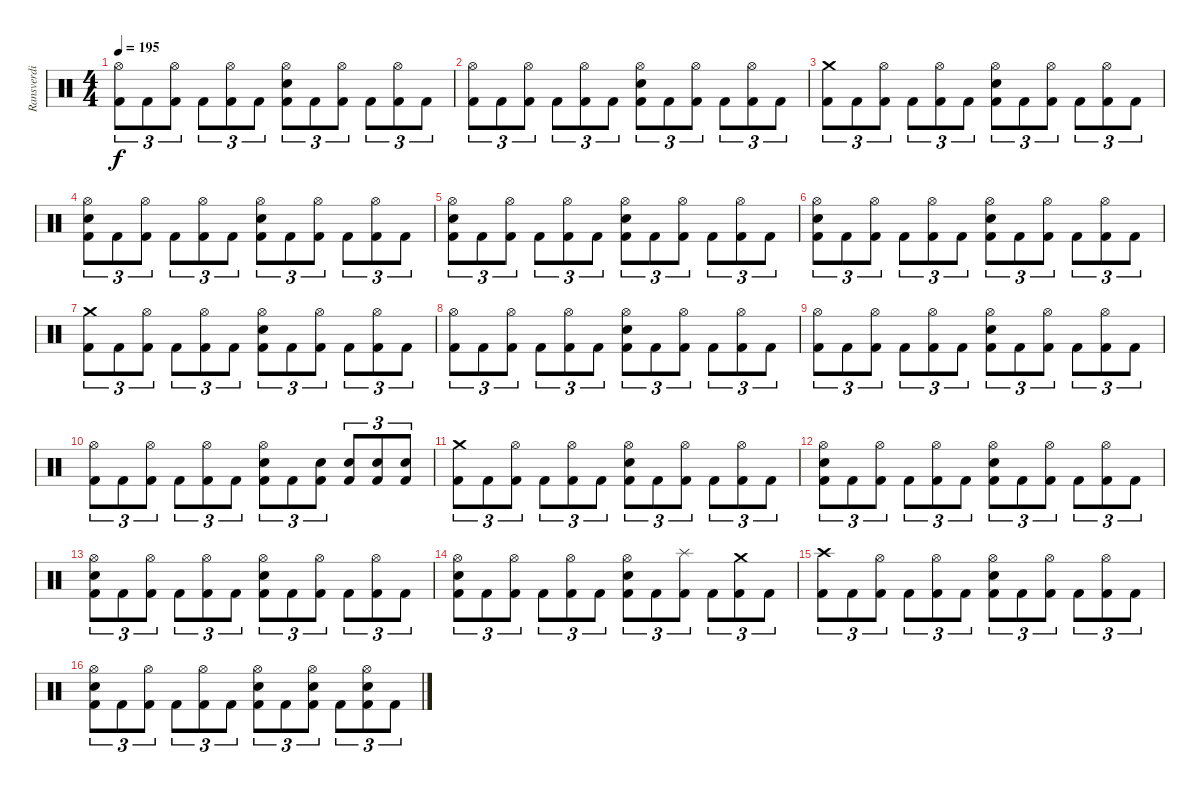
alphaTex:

\track ("Ransverdi" "Ransverdi") {instrument percussion}
\staff {score}
\articulation defaults
\ts (4 4)
\tempo 195
\clef neutral
\ks c
("Hi-Hat (open)" "Kick (hit) 2").8{tu (3 2) dy f} "Kick (hit) 2".8{tu (3 2)} ("Hi-Hat (open)" "Kick (hit) 2").8{tu (3 2)} "Kick (hit) 2".8{tu (3 2)} ("Hi-Hat (open)" "Kick (hit) 2").8{tu (3 2)} "Kick (hit) 2".8{tu (3 2)} ("Hi-Hat (open)" "Snare (hit) 2" "Kick (hit) 2").8{tu (3 2)} "Kick (hit) 2".8{tu (3 2)} ("Hi-Hat (open)" "Kick (hit) 2").8{tu (3 2)} "Kick (hit) 2".8{tu (3 2)} ("Hi-Hat (open)" "Kick (hit) 2").8{tu (3 2)} "Kick (hit) 2".8{tu (3 2)} |
("Hi-Hat (open)" "Kick (hit) 2").8{tu (3 2)} "Kick (hit) 2".8{tu (3 2)} ("Hi-Hat (open)" "Kick (hit) 2").8{tu (3 2)} "Kick (hit) 2".8{tu (3 2)} ("Hi-Hat (open)" "Kick (hit) 2").8{tu (3 2)} "Kick (hit) 2".8{tu (3 2)} ("Hi-Hat (open)" "Snare (hit) 2" "Kick (hit) 2").8{tu (3 2)} "Kick (hit) 2".8{tu (3 2)} ("Hi-Hat (open)" "Kick (hit) 2").8{tu (3 2)} "Kick (hit) 2".8{tu (3 2)} ("Hi-Hat (open)" "Kick (hit) 2").8{tu (3 2)} "Kick (hit) 2".8{tu (3 2)} |
("Crash medium (hit)" "Kick (hit) 2").8{tu (3 2)} "Kick (hit) 2".8{tu (3 2)} ("Hi-Hat (open)" "Kick (hit) 2").8{tu (3 2)} "Kick (hit) 2".8{tu (3 2)} ("Hi-Hat (open)" "Kick (hit) 2").8{tu (3 2)} "Kick (hit) 2".8{tu (3 2)} ("Hi-Hat (open)" "Snare (hit) 2" "Kick (hit) 2").8{tu (3 2)} "Kick (hit) 2".8{tu (3 2)} ("Hi-Hat (open)" "Kick (hit) 2").8{tu (3 2)} "Kick (hit) 2".8{tu (3 2)} ("Hi-Hat (open)" "Kick (hit) 2").8{tu (3 2)} "Kick (hit) 2".8{tu (3 2)} |
("Hi-Hat (open)" "Snare (hit) 2" "Kick (hit) 2").8{tu (3 2)} "Kick (hit) 2".8{tu (3 2)} ("Hi-Hat (open)" "Kick (hit) 2").8{tu (3 2)} "Kick (hit) 2".8{tu (3 2)} ("Hi-Hat (open)" "Kick (hit) 2").8{tu (3 2)} "Kick (hit) 2".8{tu (3 2)} ("Hi-Hat (open)" "Snare (hit) 2" "Kick (hit) 2").8{tu (3 2)} "Kick (hit) 2".8{tu (3 2)} ("Hi-Hat (open)" "Kick (hit) 2").8{tu (3 2)} "Kick (hit) 2".8{tu (3 2)} ("Hi-Hat (open)" "Kick (hit) 2").8{tu (3 2)} "Kick (hit) 2".8{tu (3 2)} |
("Hi-Hat (open)" "Snare (hit) 2" "Kick (hit) 2").8{tu (3 2)} "Kick (hit) 2".8{tu (3 2)} ("Hi-Hat (open)" "Kick (hit) 2").8{tu (3 2)} "Kick (hit) 2".8{tu (3 2)} ("Hi-Hat (open)" "Kick (hit) 2").8{tu (3 2)} "Kick (hit) 2".8{tu (3 2)} ("Hi-Hat (open)" "Snare (hit) 2" "Kick (hit) 2").8{tu (3 2)} "Kick (hit) 2".8{tu (3 2)} ("Hi-Hat (open)" "Kick (hit) 2").8{tu (3 2)} "Kick (hit) 2".8{tu (3 2)} ("Hi-Hat (open)" "Kick (hit) 2").8{tu (3 2)} "Kick (hit) 2".8{tu (3 2)} |
("Hi-Hat (open)" "Snare (hit) 2" "Kick (hit) 2").8{tu (3 2)} "Kick (hit) 2".8{tu (3 2)} ("Hi-Hat (open)" "Kick (hit) 2").8{tu (3 2)} "Kick (hit) 2".8{tu (3 2)} ("Hi-Hat (open)" "Kick (hit) 2").8{tu (3 2)} "Kick (hit) 2".8{tu (3 2)} ("Hi-Hat (open)" "Snare (hit) 2" "Kick (hit) 2").8{tu (3 2)} "Kick (hit) 2".8{tu (3 2)} ("Hi-Hat (open)" "Kick (hit) 2").8{tu (3 2)} "Kick (hit) 2".8{tu (3 2)} ("Hi-Hat (open)" "Kick (hit) 2").8{tu (3 2)} "Kick (hit) 2".8{tu (3 2)} |
("Crash medium (hit)" "Kick (hit) 2").8{tu (3 2)} "Kick (hit) 2".8{tu (3 2)} ("Hi-Hat (open)" "Kick (hit) 2").8{tu (3 2)} "Kick (hit) 2".8{tu (3 2)} ("Hi-Hat (open)" "Kick (hit) 2").8{tu (3 2)} "Kick (hit) 2".8{tu (3 2)} ("Hi-Hat (open)" "Snare (hit) 2" "Kick (hit) 2").8{tu (3 2)} "Kick (hit) 2".8{tu (3 2)} ("Hi-Hat (open)" "Kick (hit) 2").8{tu (3 2)} "Kick (hit) 2".8{tu (3 2)} ("Hi-Hat (open)" "Kick (hit) 2").8{tu (3 2)} "Kick (hit) 2".8{tu (3 2)} |
("Hi-Hat (open)" "Kick (hit) 2").8{tu (3 2)} "Kick (hit) 2".8{tu (3 2)} ("Hi-Hat (open)" "Kick (hit) 2").8{tu (3 2)} "Kick (hit) 2".8{tu (3 2)} ("Hi-Hat (open)" "Kick (hit) 2").8{tu (3 2)} "Kick (hit) 2".8{tu (3 2)} ("Hi-Hat (open)" "Snare (hit) 2" "Kick (hit) 2").8{tu (3 2)} "Kick (hit) 2".8{tu (3 2)} ("Hi-Hat (open)" "Kick (hit) 2").8{tu (3 2)} "Kick (hit) 2".8{tu (3 2)} ("Hi-Hat (open)" "Kick (hit) 2").8{tu (3 2)} "Kick (hit) 2".8{tu (3 2)} |
("Hi-Hat (open)" "Kick (hit) 2").8{tu (3 2)} "Kick (hit) 2".8{tu (3 2)} ("Hi-Hat (open)" "Kick (hit) 2").8{tu (3 2)} "Kick (hit) 2".8{tu (3 2)} ("Hi-Hat (open)" "Kick (hit) 2").8{tu (3 2)} "Kick (hit) 2".8{tu (3 2)} ("Hi-Hat (open)" "Snare (hit) 2" "Kick (hit) 2").8{tu (3 2)} "Kick (hit) 2".8{tu (3 2)} ("Hi-Hat (open)" "Kick (hit) 2").8{tu (3 2)} "Kick (hit) 2".8{tu (3 2)} ("Hi-Hat (open)" "Kick (hit) 2").8{tu (3 2)} "Kick (hit) 2".8{tu (3 2)} |
("Hi-Hat (open)" "Kick (hit) 2").8{tu (3 2)} "Kick (hit) 2".8{tu (3 2)} ("Hi-Hat (open)" "Kick (hit) 2").8{tu (3 2)} "Kick (hit) 2".8{tu (3 2)} ("Hi-Hat (open)" "Kick (hit) 2").8{tu (3 2)} "Kick (hit) 2".8{tu (3 2)} ("Hi-Hat (open)" "Snare (hit) 2" "Kick (hit) 2").8{tu (3 2)} "Kick (hit) 2".8{tu (3 2)} ("Snare (hit) 2" "Kick (hit) 2").8{tu (3 2)} ("Snare (hit) 2" "Kick (hit) 2").8{tu (3 2)} ("Snare (hit) 2" "Kick (hit) 2").8{tu (3 2)} ("Snare (hit) 2" "Kick (hit) 2").8{tu (3 2)} |
("Crash medium (hit)" "Kick (hit) 2").8{tu (3 2)} "Kick (hit) 2".8{tu (3 2)} ("Hi-Hat (open)" "Kick (hit) 2").8{tu (3 2)} "Kick (hit) 2".8{tu (3 2)} ("Hi-Hat (open)" "Kick (hit) 2").8{tu (3 2)} "Kick (hit) 2".8{tu (3 2)} ("Hi-Hat (open)" "Snare (hit) 2" "Kick (hit) 2").8{tu (3 2)} "Kick (hit) 2".8{tu (3 2)} ("Hi-Hat (open)" "Kick (hit) 2").8{tu (3 2)} "Kick (hit) 2".8{tu (3 2)} ("Hi-Hat (open)" "Kick (hit) 2").8{tu (3 2)} "Kick (hit) 2".8{tu (3 2)} |
("Hi-Hat (open)" "Snare (hit) 2" "Kick (hit) 2").8{tu (3 2)} "Kick (hit) 2".8{tu (3 2)} ("Hi-Hat (open)" "Kick (hit) 2").8{tu (3 2)} "Kick (hit) 2".8{tu (3 2)} ("Hi-Hat (open)" "Kick (hit) 2").8{tu (3 2)} "Kick (hit) 2".8{tu (3 2)} ("Hi-Hat (open)" "Snare (hit) 2" "Kick (hit) 2").8{tu (3 2)} "Kick (hit) 2".8{tu (3 2)} ("Hi-Hat (open)" "Kick (hit) 2").8{tu (3 2)} "Kick (hit) 2".8{tu (3 2)} ("Hi-Hat (open)" "Kick (hit) 2").8{tu (3 2)} "Kick (hit) 2".8{tu (3 2)} |
("Hi-Hat (open)" "Snare (hit) 2" "Kick (hit) 2").8{tu (3 2)} "Kick (hit) 2".8{tu (3 2)} ("Hi-Hat (open)" "Kick (hit) 2").8{tu (3 2)} "Kick (hit) 2".8{tu (3 2)} ("Hi-Hat (open)" "Kick (hit) 2").8{tu (3 2)} "Kick (hit) 2".8{tu (3 2)} ("Hi-Hat (open)" "Snare (hit) 2" "Kick (hit) 2").8{tu (3 2)} "Kick (hit) 2".8{tu (3 2)} ("Hi-Hat (open)" "Kick (hit) 2").8{tu (3 2)} "Kick (hit) 2".8{tu (3 2)} ("Hi-Hat (open)" "Kick (hit) 2").8{tu (3 2)} "Kick (hit) 2".8{tu (3 2)} |
("Hi-Hat (open)" "Snare (hit) 2" "Kick (hit) 2").8{tu (3 2)} "Kick (hit) 2".8{tu (3 2)} ("Hi-Hat (open)" "Kick (hit) 2").8{tu (3 2)} "Kick (hit) 2".8{tu (3 2)} ("Hi-Hat (open)" "Kick (hit) 2").8{tu (3 2)} "Kick (hit) 2".8{tu (3 2)} ("Hi-Hat (open)" "Snare (hit) 2" "Kick (hit) 2").8{tu (3 2)} "Kick (hit) 2".8{tu (3 2)} ("Splash (hit)" "Kick (hit) 2").8{tu (3 2)} "Kick (hit) 2".8{tu (3 2)} ("Crash medium (hit)" "Kick (hit) 2").8{tu (3 2)} "Kick (hit) 2".8{tu (3 2)} |
("Crash high (hit)" "Kick (hit) 2").8{tu (3 2)} "Kick (hit) 2".8{tu (3 2)} ("Hi-Hat (open)" "Kick (hit) 2").8{tu (3 2)} "Kick (hit) 2".8{tu (3 2)} ("Hi-Hat (open)" "Kick (hit) 2").8{tu (3 2)} "Kick (hit) 2".8{tu (3 2)} ("Hi-Hat (open)" "Snare (hit) 2" "Kick (hit) 2").8{tu (3 2)} "Kick (hit) 2".8{tu (3 2)} ("Hi-Hat (open)" "Kick (hit) 2").8{tu (3 2)} "Kick (hit) 2".8{tu (3 2)} ("Hi-Hat (open)" "Kick (hit) 2").8{tu (3 2)} "Kick (hit) 2".8{tu (3 2)} |
("Hi-Hat (open)" "Snare (hit) 2" "Kick (hit) 2").8{tu (3 2)} "Kick (hit) 2".8{tu (3 2)} ("Hi-Hat (open)" "Kick (hit) 2").8{tu (3 2)} "Kick (hit) 2".8{tu (3 2)} ("Hi-Hat (open)" "Kick (hit) 2").8{tu (3 2)} "Kick (hit) 2".8{tu (3 2)} ("Hi-Hat (open)" "Snare (hit) 2" "Kick (hit) 2").8{tu (3 2)} "Kick (hit) 2".8{tu (3 2)} ("Hi-Hat (open)" "Snare (hit) 2" "Kick (hit) 2").8{tu (3 2)} "Kick (hit) 2".8{tu (3 2)} ("Hi-Hat (open)" "Snare (hit) 2" "Kick (hit) 2").8{tu (3 2)} "Kick (hit) 2".8{tu (3 2)}
